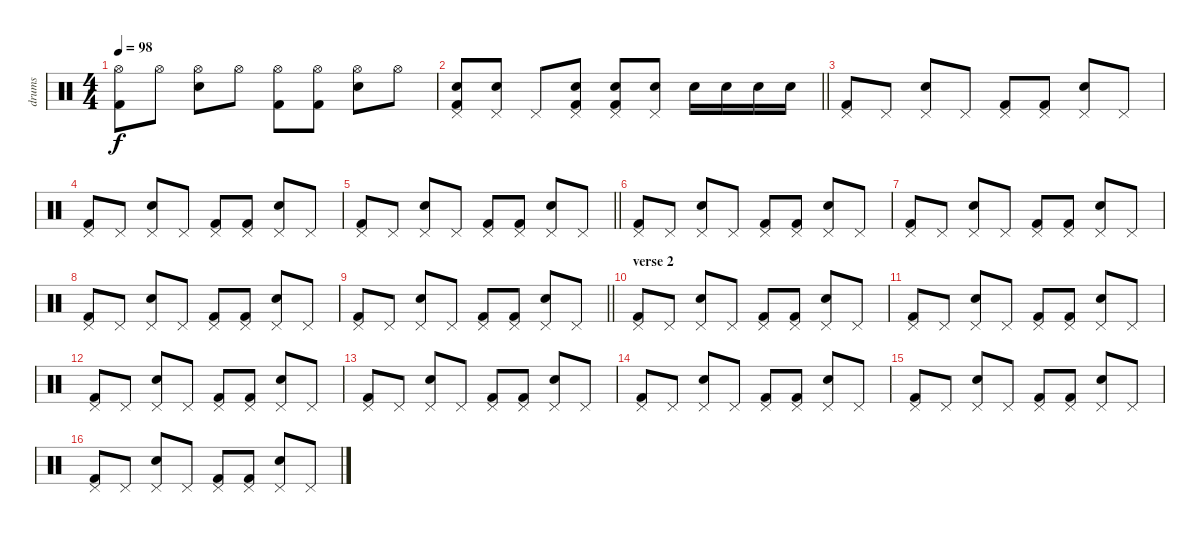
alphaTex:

\track ("drums" "drums") {instrument percussion}
\staff {score}
\articulation defaults
\ts (4 4)
\tempo 98
\clef neutral
\ks c
("Kick (hit) 2" "Hi-Hat (open)").8{dy f} "Hi-Hat (open)".8 ("Electric Snare (hit)" "Hi-Hat (open)").8 "Hi-Hat (open)".8 ("Kick (hit) 2" "Hi-Hat (open)").8 ("Kick (hit) 2" "Hi-Hat (open)").8 ("Electric Snare (hit)" "Hi-Hat (open)").8 "Hi-Hat (open)".8 |
\barLineRight lightlight
("Kick (hit) 2" "Electric Snare (hit)" "Pedal Hi-Hat (hit)").8 ("Electric Snare (hit)" "Pedal Hi-Hat (hit)").8 "Pedal Hi-Hat (hit)".8 ("Kick (hit) 2" "Electric Snare (hit)" "Pedal Hi-Hat (hit)").8 ("Kick (hit) 2" "Electric Snare (hit)" "Pedal Hi-Hat (hit)").8 ("Electric Snare (hit)" "Pedal Hi-Hat (hit)").8 "Electric Snare (hit)".16 "Electric Snare (hit)".16 "Electric Snare (hit)".16 "Electric Snare (hit)".16 |
("Kick (hit) 2" "Pedal Hi-Hat (hit)").8 "Pedal Hi-Hat (hit)".8 ("Electric Snare (hit)" "Pedal Hi-Hat (hit)").8 "Pedal Hi-Hat (hit)".8 ("Kick (hit) 2" "Pedal Hi-Hat (hit)").8 ("Kick (hit) 2" "Pedal Hi-Hat (hit)").8 ("Electric Snare (hit)" "Pedal Hi-Hat (hit)").8 "Pedal Hi-Hat (hit)".8 |
("Kick (hit) 2" "Pedal Hi-Hat (hit)").8 "Pedal Hi-Hat (hit)".8 ("Electric Snare (hit)" "Pedal Hi-Hat (hit)").8 "Pedal Hi-Hat (hit)".8 ("Kick (hit) 2" "Pedal Hi-Hat (hit)").8 ("Kick (hit) 2" "Pedal Hi-Hat (hit)").8 ("Electric Snare (hit)" "Pedal Hi-Hat (hit)").8 "Pedal Hi-Hat (hit)".8 |
\barLineRight lightlight
("Kick (hit) 2" "Pedal Hi-Hat (hit)").8 "Pedal Hi-Hat (hit)".8 ("Electric Snare (hit)" "Pedal Hi-Hat (hit)").8 "Pedal Hi-Hat (hit)".8 ("Kick (hit) 2" "Pedal Hi-Hat (hit)").8 ("Kick (hit) 2" "Pedal Hi-Hat (hit)").8 ("Electric Snare (hit)" "Pedal Hi-Hat (hit)").8 "Pedal Hi-Hat (hit)".8 |
("Kick (hit) 2" "Pedal Hi-Hat (hit)").8 "Pedal Hi-Hat (hit)".8 ("Electric Snare (hit)" "Pedal Hi-Hat (hit)").8 "Pedal Hi-Hat (hit)".8 ("Kick (hit) 2" "Pedal Hi-Hat (hit)").8 ("Kick (hit) 2" "Pedal Hi-Hat (hit)").8 ("Electric Snare (hit)" "Pedal Hi-Hat (hit)").8 "Pedal Hi-Hat (hit)".8 |
("Kick (hit) 2" "Pedal Hi-Hat (hit)").8 "Pedal Hi-Hat (hit)".8 ("Electric Snare (hit)" "Pedal Hi-Hat (hit)").8 "Pedal Hi-Hat (hit)".8 ("Kick (hit) 2" "Pedal Hi-Hat (hit)").8 ("Kick (hit) 2" "Pedal Hi-Hat (hit)").8 ("Electric Snare (hit)" "Pedal Hi-Hat (hit)").8 "Pedal Hi-Hat (hit)".8 |
("Kick (hit) 2" "Pedal Hi-Hat (hit)").8 "Pedal Hi-Hat (hit)".8 ("Electric Snare (hit)" "Pedal Hi-Hat (hit)").8 "Pedal Hi-Hat (hit)".8 ("Kick (hit) 2" "Pedal Hi-Hat (hit)").8 ("Kick (hit) 2" "Pedal Hi-Hat (hit)").8 ("Electric Snare (hit)" "Pedal Hi-Hat (hit)").8 "Pedal Hi-Hat (hit)".8 |
\barLineRight lightlight
("Kick (hit) 2" "Pedal Hi-Hat (hit)").8 "Pedal Hi-Hat (hit)".8 ("Electric Snare (hit)" "Pedal Hi-Hat (hit)").8 "Pedal Hi-Hat (hit)".8 ("Kick (hit) 2" "Pedal Hi-Hat (hit)").8 ("Kick (hit) 2" "Pedal Hi-Hat (hit)").8 ("Electric Snare (hit)" "Pedal Hi-Hat (hit)").8 "Pedal Hi-Hat (hit)".8 |
\section ("" "verse 2")
("Kick (hit) 2" "Pedal Hi-Hat (hit)").8 "Pedal Hi-Hat (hit)".8 ("Electric Snare (hit)" "Pedal Hi-Hat (hit)").8 "Pedal Hi-Hat (hit)".8 ("Kick (hit) 2" "Pedal Hi-Hat (hit)").8 ("Kick (hit) 2" "Pedal Hi-Hat (hit)").8 ("Electric Snare (hit)" "Pedal Hi-Hat (hit)").8 "Pedal Hi-Hat (hit)".8 |
("Kick (hit) 2" "Pedal Hi-Hat (hit)").8 "Pedal Hi-Hat (hit)".8 ("Electric Snare (hit)" "Pedal Hi-Hat (hit)").8 "Pedal Hi-Hat (hit)".8 ("Kick (hit) 2" "Pedal Hi-Hat (hit)").8 ("Kick (hit) 2" "Pedal Hi-Hat (hit)").8 ("Electric Snare (hit)" "Pedal Hi-Hat (hit)").8 "Pedal Hi-Hat (hit)".8 |
("Kick (hit) 2" "Pedal Hi-Hat (hit)").8 "Pedal Hi-Hat (hit)".8 ("Electric Snare (hit)" "Pedal Hi-Hat (hit)").8 "Pedal Hi-Hat (hit)".8 ("Kick (hit) 2" "Pedal Hi-Hat (hit)").8 ("Kick (hit) 2" "Pedal Hi-Hat (hit)").8 ("Electric Snare (hit)" "Pedal Hi-Hat (hit)").8 "Pedal Hi-Hat (hit)".8 |
("Kick (hit) 2" "Pedal Hi-Hat (hit)").8 "Pedal Hi-Hat (hit)".8 ("Electric Snare (hit)" "Pedal Hi-Hat (hit)").8 "Pedal Hi-Hat (hit)".8 ("Kick (hit) 2" "Pedal Hi-Hat (hit)").8 ("Kick (hit) 2" "Pedal Hi-Hat (hit)").8 ("Electric Snare (hit)" "Pedal Hi-Hat (hit)").8 "Pedal Hi-Hat (hit)".8 |
("Kick (hit) 2" "Pedal Hi-Hat (hit)").8 "Pedal Hi-Hat (hit)".8 ("Electric Snare (hit)" "Pedal Hi-Hat (hit)").8 "Pedal Hi-Hat (hit)".8 ("Kick (hit) 2" "Pedal Hi-Hat (hit)").8 ("Kick (hit) 2" "Pedal Hi-Hat (hit)").8 ("Electric Snare (hit)" "Pedal Hi-Hat (hit)").8 "Pedal Hi-Hat (hit)".8 |
("Kick (hit) 2" "Pedal Hi-Hat (hit)").8 "Pedal Hi-Hat (hit)".8 ("Electric Snare (hit)" "Pedal Hi-Hat (hit)").8 "Pedal Hi-Hat (hit)".8 ("Kick (hit) 2" "Pedal Hi-Hat (hit)").8 ("Kick (hit) 2" "Pedal Hi-Hat (hit)").8 ("Electric Snare (hit)" "Pedal Hi-Hat (hit)").8 "Pedal Hi-Hat (hit)".8 |
("Kick (hit) 2" "Pedal Hi-Hat (hit)").8 "Pedal Hi-Hat (hit)".8 ("Electric Snare (hit)" "Pedal Hi-Hat (hit)").8 "Pedal Hi-Hat (hit)".8 ("Kick (hit) 2" "Pedal Hi-Hat (hit)").8 ("Kick (hit) 2" "Pedal Hi-Hat (hit)").8 ("Electric Snare (hit)" "Pedal Hi-Hat (hit)").8 "Pedal Hi-Hat (hit)".8
